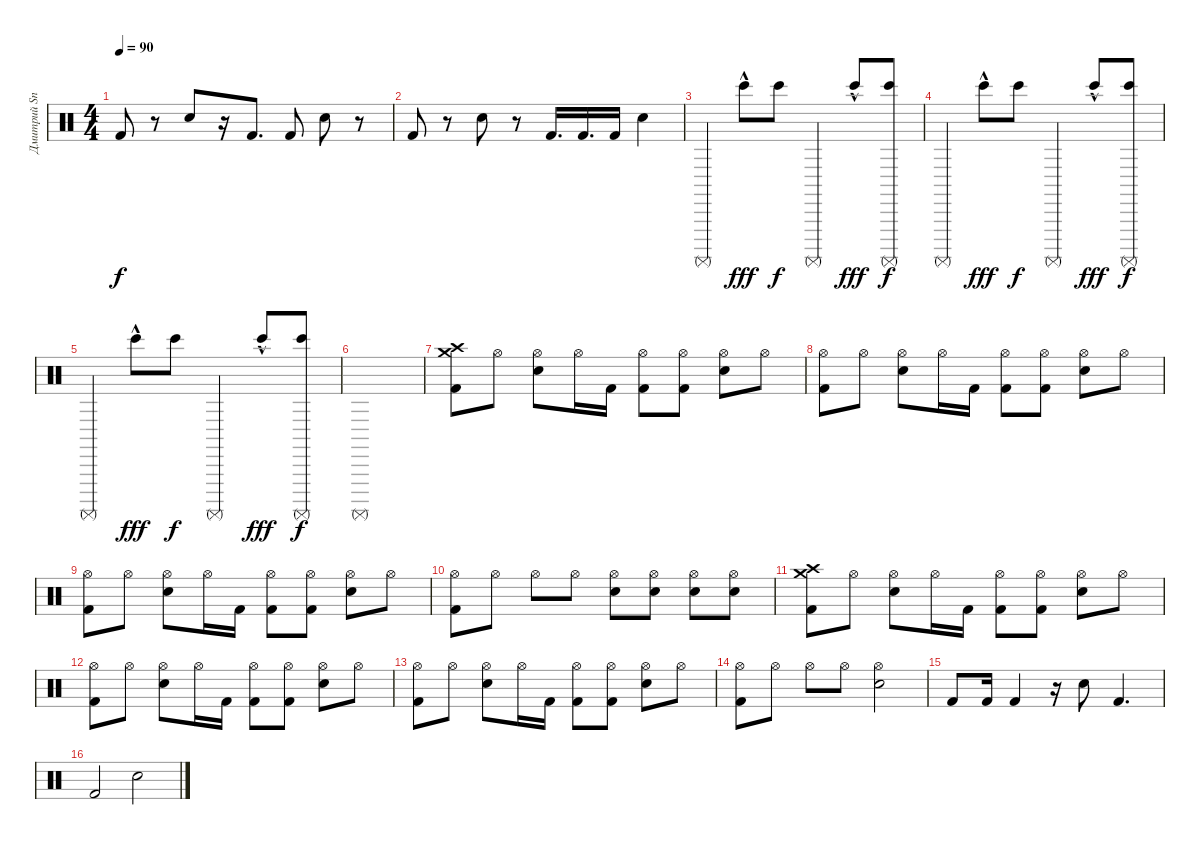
\track ("Дмитрий Snake Хакимов" "Дмитрий Sn") {instrument percussion}
\staff {score}
\articulation defaults
\ts (4 4)
\tempo 90
\clef neutral
\ks c "Kick (hit) 2".8{dy f}
r.8 "Snare (hit) 2".8 r.16 "Kick (hit) 2".8{d} "Kick (hit) 2".8 "Snare (hit) 2".8 r.8 |
"Kick (hit) 2".8 r.8 "Snare (hit) 2".8 r.8 "Kick (hit) 2".16{d} "Kick (hit) 2".16{d} "Kick (hit) 2".16 "Snare (hit) 2".4 |
"Surdo (mute)".4 "Bongo High (hit)"{hac}.8{dy fff} "Bongo High (hit)".8{dy f} "Surdo (mute)".4 "Bongo High (hit)"{hac}.8{dy fff} ("Bongo High (hit)" "Surdo (mute)").8{dy f} |
"Surdo (mute)".4 "Bongo High (hit)"{hac}.8{dy fff} "Bongo High (hit)".8{dy f} "Surdo (mute)".4 "Bongo High (hit)"{hac}.8{dy fff} ("Bongo High (hit)" "Surdo (mute)").8{dy f} |
"Surdo (mute)".4 "Bongo High (hit)"{hac}.8{dy fff} "Bongo High (hit)".8{dy f} "Surdo (mute)".4 "Bongo High (hit)"{hac}.8{dy fff} ("Bongo High (hit)" "Surdo (mute)").8{dy f} |
"Surdo (mute)".1 |
("Crash high (hit)" "Crash medium (hit)" "Kick (hit) 2").8 "Hi-Hat (open)".8 ("Hi-Hat (open)" "Electric Snare (hit)").8 "Hi-Hat (open)".16 "Kick (hit) 2".16 ("Hi-Hat (open)" "Kick (hit) 2").8 ("Hi-Hat (open)" "Kick (hit) 2").8 ("Hi-Hat (open)" "Electric Snare (hit)").8 "Hi-Hat (open)".8 |
("Hi-Hat (open)" "Kick (hit) 2").8 "Hi-Hat (open)".8 ("Hi-Hat (open)" "Electric Snare (hit)").8 "Hi-Hat (open)".16 "Kick (hit) 2".16 ("Hi-Hat (open)" "Kick (hit) 2").8 ("Hi-Hat (open)" "Kick (hit) 2").8 ("Hi-Hat (open)" "Electric Snare (hit)").8 "Hi-Hat (open)".8 |
("Hi-Hat (open)" "Kick (hit) 2").8 "Hi-Hat (open)".8 ("Hi-Hat (open)" "Electric Snare (hit)").8 "Hi-Hat (open)".16 "Kick (hit) 2".16 ("Hi-Hat (open)" "Kick (hit) 2").8 ("Hi-Hat (open)" "Kick (hit) 2").8 ("Hi-Hat (open)" "Electric Snare (hit)").8 "Hi-Hat (open)".8 |
("Hi-Hat (open)" "Kick (hit) 2").8 "Hi-Hat (open)".8 "Hi-Hat (open)".8 "Hi-Hat (open)".8 ("Hi-Hat (open)" "Electric Snare (hit)").8 ("Hi-Hat (open)" "Electric Snare (hit)").8 ("Hi-Hat (open)" "Electric Snare (hit)").8 ("Hi-Hat (open)" "Electric Snare (hit)").8 |
("Crash high (hit)" "Crash medium (hit)" "Kick (hit) 2").8 "Hi-Hat (open)".8 ("Hi-Hat (open)" "Electric Snare (hit)").8 "Hi-Hat (open)".16 "Kick (hit) 2".16 ("Hi-Hat (open)" "Kick (hit) 2").8 ("Hi-Hat (open)" "Kick (hit) 2").8 ("Hi-Hat (open)" "Electric Snare (hit)").8 "Hi-Hat (open)".8 |
("Hi-Hat (open)" "Kick (hit) 2").8 "Hi-Hat (open)".8 ("Hi-Hat (open)" "Electric Snare (hit)").8 "Hi-Hat (open)".16 "Kick (hit) 2".16 ("Hi-Hat (open)" "Kick (hit) 2").8 ("Hi-Hat (open)" "Kick (hit) 2").8 ("Hi-Hat (open)" "Electric Snare (hit)").8 "Hi-Hat (open)".8 |
("Hi-Hat (open)" "Kick (hit) 2").8 "Hi-Hat (open)".8 ("Hi-Hat (open)" "Electric Snare (hit)").8 "Hi-Hat (open)".16 "Kick (hit) 2".16 ("Hi-Hat (open)" "Kick (hit) 2").8 ("Hi-Hat (open)" "Kick (hit) 2").8 ("Hi-Hat (open)" "Electric Snare (hit)").8 "Hi-Hat (open)".8 |
("Hi-Hat (open)" "Kick (hit) 2").8 "Hi-Hat (open)".8 "Hi-Hat (open)".8 "Hi-Hat (open)".8 ("Hi-Hat (open)" "Electric Snare (hit)").2 |
"Kick (hit) 2".8 "Kick (hit) 2".16 "Kick (hit) 2".4 r.16 "Snare (hit) 2".8 "Kick (hit) 2".4{d} |
"Kick (hit) 2".2 "Snare (hit) 2".2
